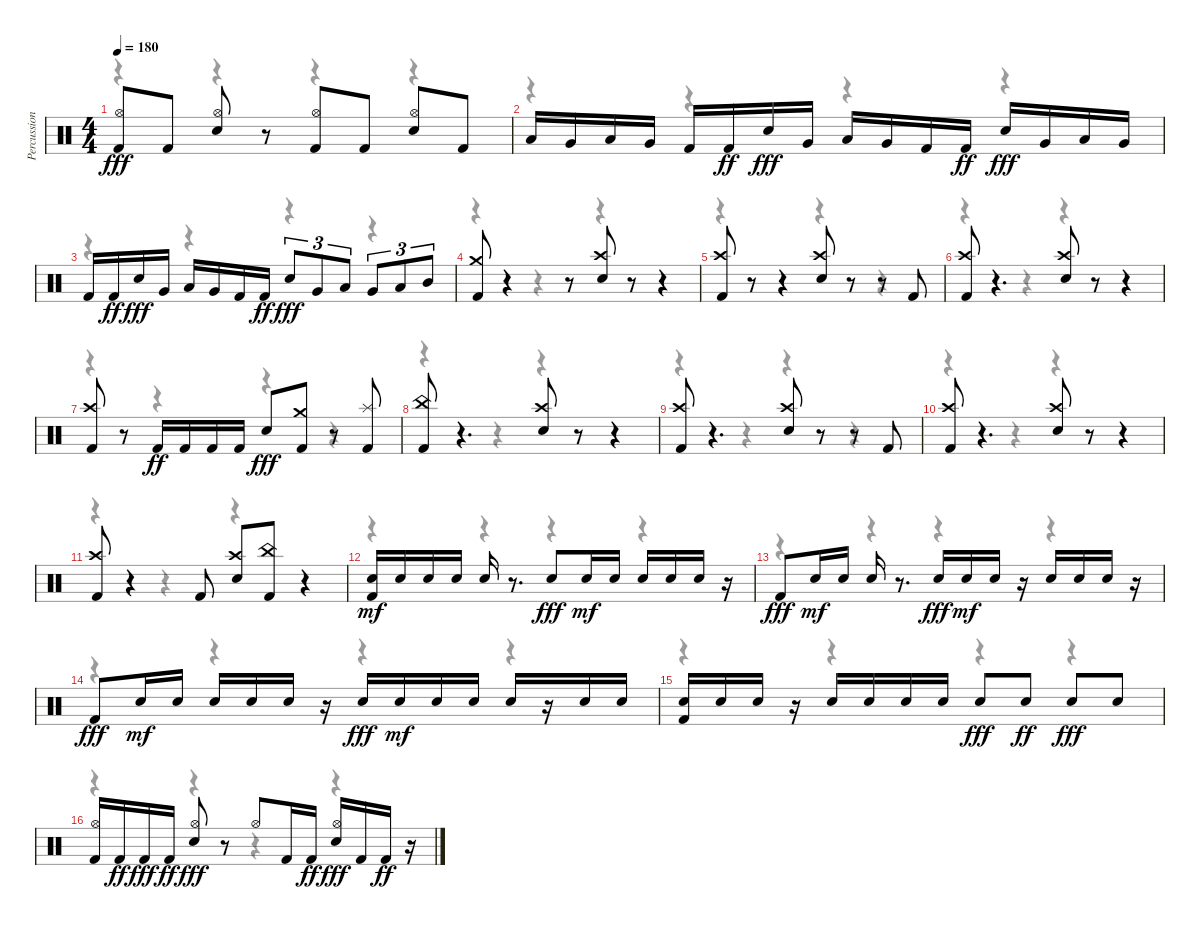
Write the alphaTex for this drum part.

\track ("Percussion" "Percussion") {instrument percussion}
\staff {score}
\articulation defaults
\voice
\ts (4 4)
\tempo 180
\clef neutral
\ks c
("Hi-Hat (open)" "Kick (hit) 2").8{dy fff} "Kick (hit) 2".8 ("Hi-Hat (open)" "Snare (hit) 2").8 r.8 ("Hi-Hat (open)" "Kick (hit) 2").8 "Kick (hit) 2".8 ("Hi-Hat (open)" "Snare (hit) 2").8 "Kick (hit) 2".8 |
"Low Tom (hit)".16 "Very Low Tom (hit)".16 "Low Tom (hit)".16 "Very Low Tom (hit)".16 "Kick (hit) 2".16 "Kick (hit) 2".16{dy ff} "Snare (hit) 2".16{dy fff} "Very Low Tom (hit)".16 "Low Tom (hit)".16 "Very Low Tom (hit)".16 "Kick (hit) 2".16 "Kick (hit) 2".16{dy ff} "Snare (hit) 2".16{dy fff} "Very Low Tom (hit)".16 "Low Tom (hit)".16 "Very Low Tom (hit)".16 |
"Kick (hit) 2".16 "Kick (hit) 2".16{dy ff} "Snare (hit) 2".16{dy fff} "Very Low Tom (hit)".16 "Low Tom (hit)".16 "Very Low Tom (hit)".16 "Kick (hit) 2".16 "Kick (hit) 2".16{dy ff} "Snare (hit) 2".8{tu (3 2) dy fff} "Very Low Tom (hit)".8{tu (3 2)} "Low Tom (hit)".8{tu (3 2)} "Very Low Tom (hit)".8{tu (3 2)} "Low Tom (hit)".8{tu (3 2)} "Mid Tom (hit)".8{tu (3 2)} |
("Kick (hit) 2" "Crash medium (hit)").8 r.4 r.8 ("Snare (hit) 2" "Crash high (hit)").8 r.8 r.4 |
("Kick (hit) 2" "Crash high (hit)").8 r.8 r.4 ("Snare (hit) 2" "Crash high (hit)").8 r.8 r.8 "Kick (hit) 2".8 |
("Kick (hit) 2" "Crash high (hit)").8 r.4{d} ("Snare (hit) 2" "Crash high (hit)").8 r.8 r.4 |
("Kick (hit) 2" "Crash high (hit)").8 r.8 "Kick (hit) 2".16{dy ff} "Kick (hit) 2".16 "Kick (hit) 2".16 "Kick (hit) 2".16 "Snare (hit) 2".8{dy fff} ("Kick (hit) 2" "Crash medium (hit)").8 r.8 ("Kick (hit) 2" "Splash (hit)").8 |
("Kick (hit) 2" "China (hit)").8 r.4{d} ("Snare (hit) 2" "Crash high (hit)").8 r.8 r.4 |
("Kick (hit) 2" "Crash high (hit)").8 r.4{d} ("Snare (hit) 2" "Crash high (hit)").8 r.8 r.8 "Kick (hit) 2".8 |
("Kick (hit) 2" "Crash high (hit)").8 r.4{d} ("Snare (hit) 2" "Crash high (hit)").8 r.8 r.4 |
("Kick (hit) 2" "Crash high (hit)").8 r.4 "Kick (hit) 2".8 ("Snare (hit) 2" "Crash high (hit)").8 ("Kick (hit) 2" "China (hit)").8 r.4 |
("Snare (hit) 2" "Kick (hit) 2").16{dy mf} "Snare (hit) 2".16 "Snare (hit) 2".16 "Snare (hit) 2".16 "Snare (hit) 2".16 r.8{d} "Snare (hit) 2".8{dy fff} "Snare (hit) 2".16{dy mf} "Snare (hit) 2".16 "Snare (hit) 2".16 "Snare (hit) 2".16 "Snare (hit) 2".16 r.16 |
"Kick (hit) 2".8{dy fff} "Snare (hit) 2".16{dy mf} "Snare (hit) 2".16 "Snare (hit) 2".16 r.8{d} "Snare (hit) 2".16{dy fff} "Snare (hit) 2".16{dy mf} "Snare (hit) 2".16 r.16 "Snare (hit) 2".16 "Snare (hit) 2".16 "Snare (hit) 2".16 r.16 |
"Kick (hit) 2".8{dy fff} "Snare (hit) 2".16{dy mf} "Snare (hit) 2".16 "Snare (hit) 2".16 "Snare (hit) 2".16 "Snare (hit) 2".16 r.16 "Snare (hit) 2".16{dy fff} "Snare (hit) 2".16{dy mf} "Snare (hit) 2".16 "Snare (hit) 2".16 "Snare (hit) 2".16 r.16 "Snare (hit) 2".16 "Snare (hit) 2".16 |
("Snare (hit) 2" "Kick (hit) 2").16 "Snare (hit) 2".16 "Snare (hit) 2".16 r.16 "Snare (hit) 2".16 "Snare (hit) 2".16 "Snare (hit) 2".16 "Snare (hit) 2".16 "Snare (hit) 2".8{dy fff} "Snare (hit) 2".8{dy ff} "Snare (hit) 2".8{dy fff} "Snare (hit) 2".8 |
("Kick (hit) 2" "Hi-Hat (open)").16 "Kick (hit) 2".16{dy ff} "Kick (hit) 2".16{dy fff} "Kick (hit) 2".16{dy ff} ("Snare (hit) 2" "Hi-Hat (open)").8{dy fff} r.8 "Hi-Hat (open)".8 "Kick (hit) 2".16 "Kick (hit) 2".16{dy ff} ("Snare (hit) 2" "Hi-Hat (open)").16{dy fff} "Kick (hit) 2".16 "Kick (hit) 2".16{dy ff} r.16
\voice
\clef neutral
\ottava regular
\simile none
\ks c
r.4{dy f} r.4 r.4 r.4 |
r.4 r.4 r.4 r.4 |
r.4 r.4 r.4 r.4 |
r.4 r.4 r.4 r.4 |
r.4 r.4 r.4 r.4 |
r.4 r.4 r.4 r.4 |
r.4 r.4 r.4 r.4 |
r.4 r.4 r.4 r.4 |
r.4 r.4 r.4 r.4 |
r.4 r.4 r.4 r.4 |
r.4 r.4 r.4 r.4 |
r.4 r.4 r.4 r.4 |
r.4 r.4 r.4 r.4 |
r.4 r.4 r.4 r.4 |
r.4 r.4 r.4 r.4 |
r.4 r.4 r.4 r.4
